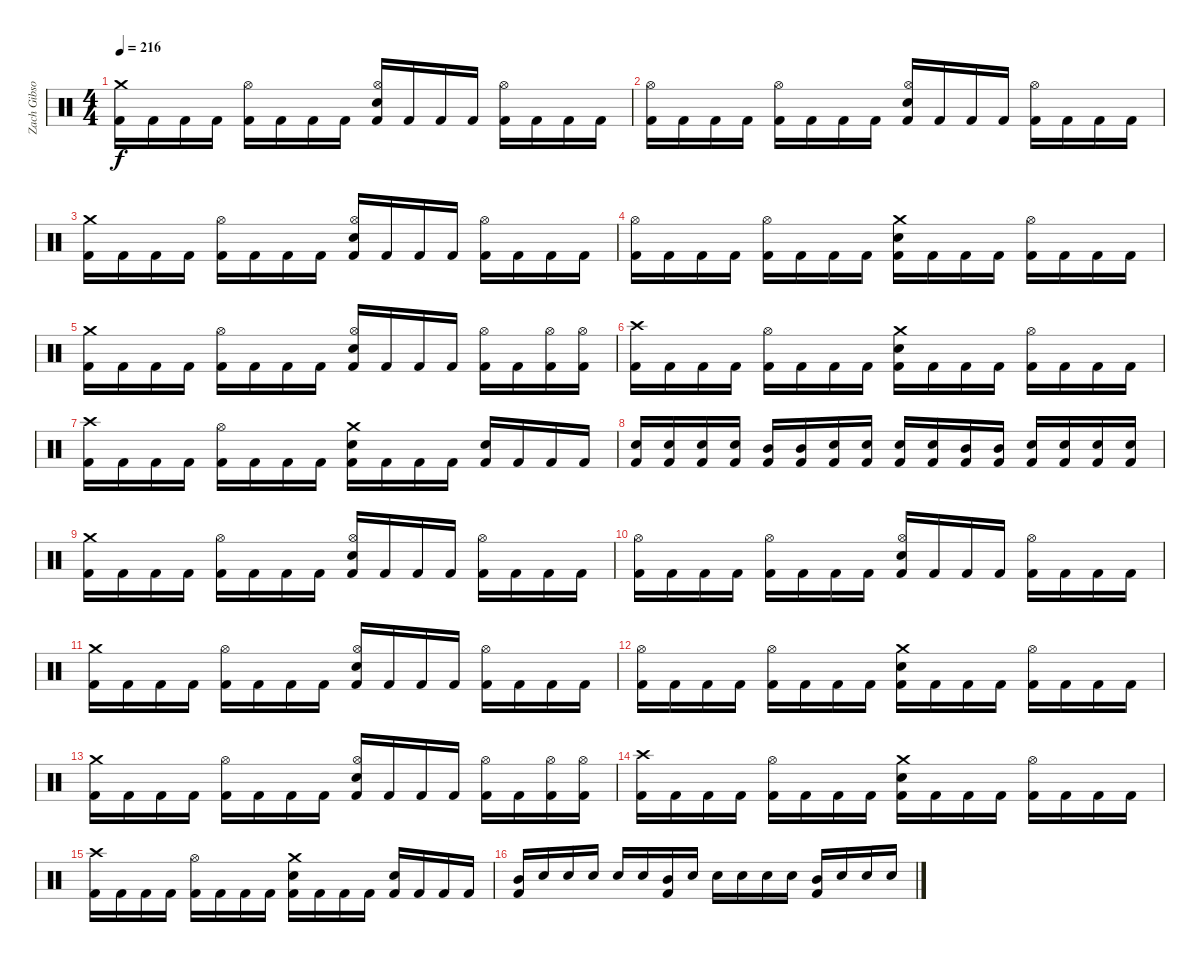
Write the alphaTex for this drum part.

\track ("Zach Gibson (Ex-Drums)" "Zach Gibso") {instrument percussion}
\staff {score}
\articulation defaults
\ts (4 4)
\tempo 216
\clef neutral
\ks c
("Crash medium (hit)" "Kick (hit) 2").16{dy f} "Kick (hit) 2".16 "Kick (hit) 2".16 "Kick (hit) 2".16 ("Hi-Hat (open)" "Kick (hit) 2").16 "Kick (hit) 2".16 "Kick (hit) 2".16 "Kick (hit) 2".16 ("Hi-Hat (open)" "Snare (hit) 2" "Kick (hit) 2").16 "Kick (hit) 2".16 "Kick (hit) 2".16 "Kick (hit) 2".16 ("Hi-Hat (open)" "Kick (hit) 2").16 "Kick (hit) 2".16 "Kick (hit) 2".16 "Kick (hit) 2".16 |
("Hi-Hat (open)" "Kick (hit) 2").16 "Kick (hit) 2".16 "Kick (hit) 2".16 "Kick (hit) 2".16 ("Hi-Hat (open)" "Kick (hit) 2").16 "Kick (hit) 2".16 "Kick (hit) 2".16 "Kick (hit) 2".16 ("Hi-Hat (open)" "Snare (hit) 2" "Kick (hit) 2").16 "Kick (hit) 2".16 "Kick (hit) 2".16 "Kick (hit) 2".16 ("Hi-Hat (open)" "Kick (hit) 2").16 "Kick (hit) 2".16 "Kick (hit) 2".16 "Kick (hit) 2".16 |
("Crash medium (hit)" "Kick (hit) 2").16 "Kick (hit) 2".16 "Kick (hit) 2".16 "Kick (hit) 2".16 ("Hi-Hat (open)" "Kick (hit) 2").16 "Kick (hit) 2".16 "Kick (hit) 2".16 "Kick (hit) 2".16 ("Hi-Hat (open)" "Snare (hit) 2" "Kick (hit) 2").16 "Kick (hit) 2".16 "Kick (hit) 2".16 "Kick (hit) 2".16 ("Hi-Hat (open)" "Kick (hit) 2").16 "Kick (hit) 2".16 "Kick (hit) 2".16 "Kick (hit) 2".16 |
("Hi-Hat (open)" "Kick (hit) 2").16 "Kick (hit) 2".16 "Kick (hit) 2".16 "Kick (hit) 2".16 ("Hi-Hat (open)" "Kick (hit) 2").16 "Kick (hit) 2".16 "Kick (hit) 2".16 "Kick (hit) 2".16 ("Crash medium (hit)" "Snare (hit) 2" "Kick (hit) 2").16 "Kick (hit) 2".16 "Kick (hit) 2".16 "Kick (hit) 2".16 ("Hi-Hat (open)" "Kick (hit) 2").16 "Kick (hit) 2".16 "Kick (hit) 2".16 "Kick (hit) 2".16 |
("Crash medium (hit)" "Kick (hit) 2").16 "Kick (hit) 2".16 "Kick (hit) 2".16 "Kick (hit) 2".16 ("Hi-Hat (open)" "Kick (hit) 2").16 "Kick (hit) 2".16 "Kick (hit) 2".16 "Kick (hit) 2".16 ("Hi-Hat (open)" "Snare (hit) 2" "Kick (hit) 2").16 "Kick (hit) 2".16 "Kick (hit) 2".16 "Kick (hit) 2".16 ("Hi-Hat (open)" "Kick (hit) 2").16 "Kick (hit) 2".16 ("Hi-Hat (open)" "Kick (hit) 2").16 ("Hi-Hat (open)" "Kick (hit) 2").16 |
("Crash high (hit)" "Kick (hit) 2").16 "Kick (hit) 2".16 "Kick (hit) 2".16 "Kick (hit) 2".16 ("Hi-Hat (open)" "Kick (hit) 2").16 "Kick (hit) 2".16 "Kick (hit) 2".16 "Kick (hit) 2".16 ("Crash medium (hit)" "Snare (hit) 2" "Kick (hit) 2").16 "Kick (hit) 2".16 "Kick (hit) 2".16 "Kick (hit) 2".16 ("Hi-Hat (open)" "Kick (hit) 2").16 "Kick (hit) 2".16 "Kick (hit) 2".16 "Kick (hit) 2".16 |
("Crash high (hit)" "Kick (hit) 2").16 "Kick (hit) 2".16 "Kick (hit) 2".16 "Kick (hit) 2".16 ("Hi-Hat (open)" "Kick (hit) 2").16 "Kick (hit) 2".16 "Kick (hit) 2".16 "Kick (hit) 2".16 ("Crash medium (hit)" "Snare (hit) 2" "Kick (hit) 2").16 "Kick (hit) 2".16 "Kick (hit) 2".16 "Kick (hit) 2".16 ("Snare (hit) 2" "Kick (hit) 2").16 "Kick (hit) 2".16 "Kick (hit) 2".16 "Kick (hit) 2".16 |
("Snare (hit) 2" "Kick (hit) 2").16 ("Snare (hit) 2" "Kick (hit) 2").16 ("Snare (hit) 2" "Kick (hit) 2").16 ("Snare (hit) 2" "Kick (hit) 2").16 ("Mid Tom (hit)" "Kick (hit) 2").16 ("Mid Tom (hit)" "Kick (hit) 2").16 ("Snare (hit) 2" "Kick (hit) 2").16 ("Snare (hit) 2" "Kick (hit) 2").16 ("Snare (hit) 2" "Kick (hit) 2").16 ("Snare (hit) 2" "Kick (hit) 2").16 ("Mid Tom (hit)" "Kick (hit) 2").16 ("Mid Tom (hit)" "Kick (hit) 2").16 ("Snare (hit) 2" "Kick (hit) 2").16 ("Snare (hit) 2" "Kick (hit) 2").16 ("Snare (hit) 2" "Kick (hit) 2").16 ("Snare (hit) 2" "Kick (hit) 2").16 |
("Crash medium (hit)" "Kick (hit) 2").16 "Kick (hit) 2".16 "Kick (hit) 2".16 "Kick (hit) 2".16 ("Hi-Hat (open)" "Kick (hit) 2").16 "Kick (hit) 2".16 "Kick (hit) 2".16 "Kick (hit) 2".16 ("Hi-Hat (open)" "Snare (hit) 2" "Kick (hit) 2").16 "Kick (hit) 2".16 "Kick (hit) 2".16 "Kick (hit) 2".16 ("Hi-Hat (open)" "Kick (hit) 2").16 "Kick (hit) 2".16 "Kick (hit) 2".16 "Kick (hit) 2".16 |
("Hi-Hat (open)" "Kick (hit) 2").16 "Kick (hit) 2".16 "Kick (hit) 2".16 "Kick (hit) 2".16 ("Hi-Hat (open)" "Kick (hit) 2").16 "Kick (hit) 2".16 "Kick (hit) 2".16 "Kick (hit) 2".16 ("Hi-Hat (open)" "Snare (hit) 2" "Kick (hit) 2").16 "Kick (hit) 2".16 "Kick (hit) 2".16 "Kick (hit) 2".16 ("Hi-Hat (open)" "Kick (hit) 2").16 "Kick (hit) 2".16 "Kick (hit) 2".16 "Kick (hit) 2".16 |
("Crash medium (hit)" "Kick (hit) 2").16 "Kick (hit) 2".16 "Kick (hit) 2".16 "Kick (hit) 2".16 ("Hi-Hat (open)" "Kick (hit) 2").16 "Kick (hit) 2".16 "Kick (hit) 2".16 "Kick (hit) 2".16 ("Hi-Hat (open)" "Snare (hit) 2" "Kick (hit) 2").16 "Kick (hit) 2".16 "Kick (hit) 2".16 "Kick (hit) 2".16 ("Hi-Hat (open)" "Kick (hit) 2").16 "Kick (hit) 2".16 "Kick (hit) 2".16 "Kick (hit) 2".16 |
("Hi-Hat (open)" "Kick (hit) 2").16 "Kick (hit) 2".16 "Kick (hit) 2".16 "Kick (hit) 2".16 ("Hi-Hat (open)" "Kick (hit) 2").16 "Kick (hit) 2".16 "Kick (hit) 2".16 "Kick (hit) 2".16 ("Crash medium (hit)" "Snare (hit) 2" "Kick (hit) 2").16 "Kick (hit) 2".16 "Kick (hit) 2".16 "Kick (hit) 2".16 ("Hi-Hat (open)" "Kick (hit) 2").16 "Kick (hit) 2".16 "Kick (hit) 2".16 "Kick (hit) 2".16 |
("Crash medium (hit)" "Kick (hit) 2").16 "Kick (hit) 2".16 "Kick (hit) 2".16 "Kick (hit) 2".16 ("Hi-Hat (open)" "Kick (hit) 2").16 "Kick (hit) 2".16 "Kick (hit) 2".16 "Kick (hit) 2".16 ("Hi-Hat (open)" "Snare (hit) 2" "Kick (hit) 2").16 "Kick (hit) 2".16 "Kick (hit) 2".16 "Kick (hit) 2".16 ("Hi-Hat (open)" "Kick (hit) 2").16 "Kick (hit) 2".16 ("Hi-Hat (open)" "Kick (hit) 2").16 ("Hi-Hat (open)" "Kick (hit) 2").16 |
("Crash high (hit)" "Kick (hit) 2").16 "Kick (hit) 2".16 "Kick (hit) 2".16 "Kick (hit) 2".16 ("Hi-Hat (open)" "Kick (hit) 2").16 "Kick (hit) 2".16 "Kick (hit) 2".16 "Kick (hit) 2".16 ("Crash medium (hit)" "Snare (hit) 2" "Kick (hit) 2").16 "Kick (hit) 2".16 "Kick (hit) 2".16 "Kick (hit) 2".16 ("Hi-Hat (open)" "Kick (hit) 2").16 "Kick (hit) 2".16 "Kick (hit) 2".16 "Kick (hit) 2".16 |
("Crash high (hit)" "Kick (hit) 2").16 "Kick (hit) 2".16 "Kick (hit) 2".16 "Kick (hit) 2".16 ("Hi-Hat (open)" "Kick (hit) 2").16 "Kick (hit) 2".16 "Kick (hit) 2".16 "Kick (hit) 2".16 ("Crash medium (hit)" "Snare (hit) 2" "Kick (hit) 2").16 "Kick (hit) 2".16 "Kick (hit) 2".16 "Kick (hit) 2".16 ("Snare (hit) 2" "Kick (hit) 2").16 "Kick (hit) 2".16 "Kick (hit) 2".16 "Kick (hit) 2".16 |
("Mid Tom (hit)" "Kick (hit) 2").16 "Snare (hit) 2".16 "Snare (hit) 2".16 "Snare (hit) 2".16 "Snare (hit) 2".16 "Snare (hit) 2".16 ("Mid Tom (hit)" "Kick (hit) 2").16 "Snare (hit) 2".16 "Snare (hit) 2".16 "Snare (hit) 2".16 "Snare (hit) 2".16 "Snare (hit) 2".16 ("Mid Tom (hit)" "Kick (hit) 2").16 "Snare (hit) 2".16 "Snare (hit) 2".16 "Snare (hit) 2".16
